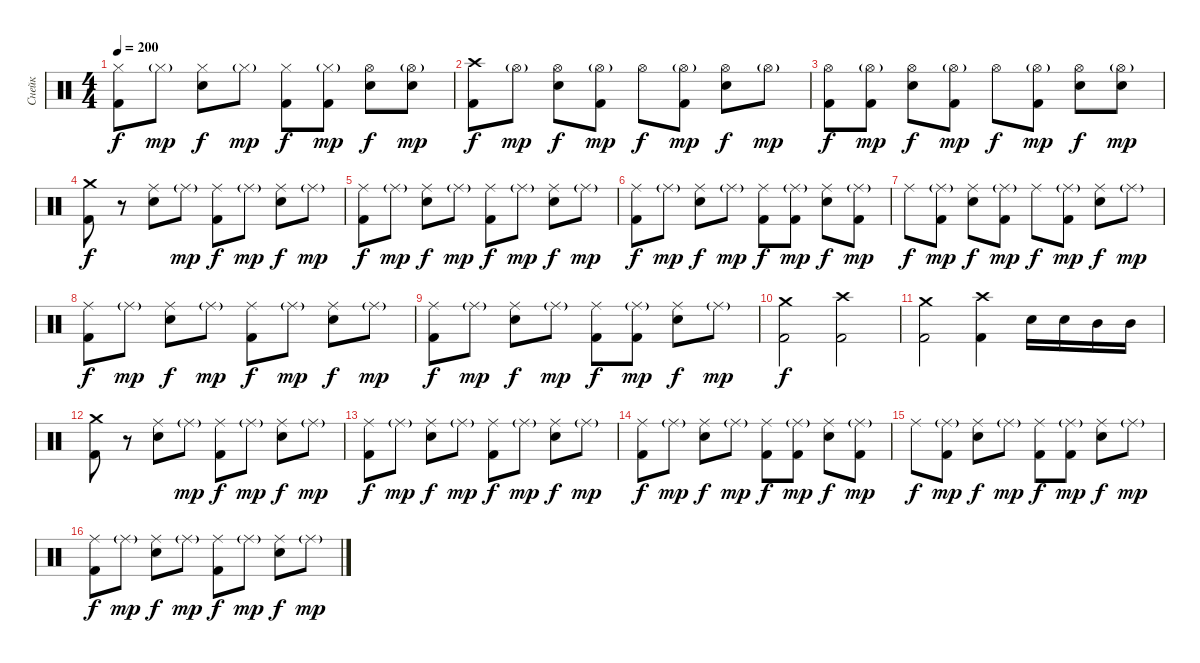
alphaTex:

\track ("Снейк" "Снейк") {instrument percussion}
\staff {score}
\articulation defaults
\ts (4 4)
\tempo 200
\clef neutral
\ks c
("Hi-Hat (closed)" "Kick (hit) 2").8{dy f} "Hi-Hat (closed)"{g}.8{dy mp} ("Hi-Hat (closed)" "Electric Snare (hit)").8{dy f} "Hi-Hat (closed)"{g}.8{dy mp} ("Hi-Hat (closed)" "Kick (hit) 2").8{dy f} ("Hi-Hat (closed)"{g} "Kick (hit) 2").8{dy mp} ("Hi-Hat (open)" "Electric Snare (hit)").8{dy f} ("Hi-Hat (open)"{g} "Electric Snare (hit)").8{dy mp} |
("Crash high (hit)" "Kick (hit) 2").8{dy f} "Hi-Hat (open)"{g}.8{dy mp} ("Hi-Hat (open)" "Electric Snare (hit)").8{dy f} ("Hi-Hat (open)"{g} "Kick (hit) 2").8{dy mp} "Hi-Hat (open)".8{dy f} ("Hi-Hat (open)"{g} "Kick (hit) 2").8{dy mp} ("Hi-Hat (open)" "Electric Snare (hit)").8{dy f} "Hi-Hat (open)"{g}.8{dy mp} |
("Hi-Hat (open)" "Kick (hit) 2").8{dy f} ("Hi-Hat (open)"{g} "Kick (hit) 2").8{dy mp} ("Hi-Hat (open)" "Electric Snare (hit)").8{dy f} ("Hi-Hat (open)"{g} "Kick (hit) 2").8{dy mp} "Hi-Hat (open)".8{dy f} ("Hi-Hat (open)"{g} "Kick (hit) 2").8{dy mp} ("Hi-Hat (open)" "Electric Snare (hit)").8{dy f} ("Hi-Hat (open)"{g} "Electric Snare (hit)").8{dy mp} |
("Crash medium (hit)" "Kick (hit) 2").8{dy f} r.8 ("Ride (middle)" "Electric Snare (hit)").8 "Ride (middle)"{g}.8{dy mp} ("Ride (middle)" "Kick (hit) 2").8{dy f} "Ride (middle)"{g}.8{dy mp} ("Ride (middle)" "Electric Snare (hit)").8{dy f} "Ride (middle)"{g}.8{dy mp} |
("Ride (middle)" "Kick (hit) 2").8{dy f} "Ride (middle)"{g}.8{dy mp} ("Ride (middle)" "Electric Snare (hit)").8{dy f} "Ride (middle)"{g}.8{dy mp} ("Ride (middle)" "Kick (hit) 2").8{dy f} "Ride (middle)"{g}.8{dy mp} ("Ride (middle)" "Electric Snare (hit)").8{dy f} "Ride (middle)"{g}.8{dy mp} |
("Ride (middle)" "Kick (hit) 2").8{dy f} "Ride (middle)"{g}.8{dy mp} ("Ride (middle)" "Electric Snare (hit)").8{dy f} "Ride (middle)"{g}.8{dy mp} ("Ride (middle)" "Kick (hit) 2").8{dy f} ("Ride (middle)"{g} "Kick (hit) 2").8{dy mp} ("Ride (middle)" "Electric Snare (hit)").8{dy f} ("Ride (middle)"{g} "Kick (hit) 2").8{dy mp} |
"Ride (middle)".8{dy f} ("Ride (middle)"{g} "Kick (hit) 2").8{dy mp} ("Ride (middle)" "Electric Snare (hit)").8{dy f} ("Ride (middle)"{g} "Kick (hit) 2").8{dy mp} "Ride (middle)".8{dy f} ("Ride (middle)"{g} "Kick (hit) 2").8{dy mp} ("Ride (middle)" "Electric Snare (hit)").8{dy f} "Ride (middle)"{g}.8{dy mp} |
("Ride (middle)" "Kick (hit) 2").8{dy f} "Ride (middle)"{g}.8{dy mp} ("Ride (middle)" "Electric Snare (hit)").8{dy f} "Ride (middle)"{g}.8{dy mp} ("Ride (middle)" "Kick (hit) 2").8{dy f} "Ride (middle)"{g}.8{dy mp} ("Ride (middle)" "Electric Snare (hit)").8{dy f} "Ride (middle)"{g}.8{dy mp} |
("Ride (middle)" "Kick (hit) 2").8{dy f} "Ride (middle)"{g}.8{dy mp} ("Ride (middle)" "Electric Snare (hit)").8{dy f} "Ride (middle)"{g}.8{dy mp} ("Ride (middle)" "Kick (hit) 2").8{dy f} ("Ride (middle)"{g} "Kick (hit) 2").8{dy mp} ("Ride (middle)" "Electric Snare (hit)").8{dy f} "Ride (middle)"{g}.8{dy mp} |
("Kick (hit) 2" "Crash medium (hit)").2{dy f} ("Kick (hit) 2" "Crash high (hit)").2 |
("Kick (hit) 2" "Crash medium (hit)").2 ("Kick (hit) 2" "Crash high (hit)").4 "Electric Snare (hit)".16 "Electric Snare (hit)".16 "Mid Tom (hit)".16 "Mid Tom (hit)".16 |
("Crash medium (hit)" "Kick (hit) 2").8 r.8 ("Ride (middle)" "Electric Snare (hit)").8 "Ride (middle)"{g}.8{dy mp} ("Ride (middle)" "Kick (hit) 2").8{dy f} "Ride (middle)"{g}.8{dy mp} ("Ride (middle)" "Electric Snare (hit)").8{dy f} "Ride (middle)"{g}.8{dy mp} |
("Ride (middle)" "Kick (hit) 2").8{dy f} "Ride (middle)"{g}.8{dy mp} ("Ride (middle)" "Electric Snare (hit)").8{dy f} "Ride (middle)"{g}.8{dy mp} ("Ride (middle)" "Kick (hit) 2").8{dy f} "Ride (middle)"{g}.8{dy mp} ("Ride (middle)" "Electric Snare (hit)").8{dy f} "Ride (middle)"{g}.8{dy mp} |
("Ride (middle)" "Kick (hit) 2").8{dy f} "Ride (middle)"{g}.8{dy mp} ("Ride (middle)" "Electric Snare (hit)").8{dy f} "Ride (middle)"{g}.8{dy mp} ("Ride (middle)" "Kick (hit) 2").8{dy f} ("Ride (middle)"{g} "Kick (hit) 2").8{dy mp} ("Ride (middle)" "Electric Snare (hit)").8{dy f} ("Ride (middle)"{g} "Kick (hit) 2").8{dy mp} |
"Ride (middle)".8{dy f} ("Ride (middle)"{g} "Kick (hit) 2").8{dy mp} ("Ride (middle)" "Electric Snare (hit)").8{dy f} "Ride (middle)"{g}.8{dy mp} ("Ride (middle)" "Kick (hit) 2").8{dy f} ("Ride (middle)"{g} "Kick (hit) 2").8{dy mp} ("Ride (middle)" "Electric Snare (hit)").8{dy f} "Ride (middle)"{g}.8{dy mp} |
("Ride (middle)" "Kick (hit) 2").8{dy f} "Ride (middle)"{g}.8{dy mp} ("Ride (middle)" "Electric Snare (hit)").8{dy f} "Ride (middle)"{g}.8{dy mp} ("Ride (middle)" "Kick (hit) 2").8{dy f} "Ride (middle)"{g}.8{dy mp} ("Ride (middle)" "Electric Snare (hit)").8{dy f} "Ride (middle)"{g}.8{dy mp}
